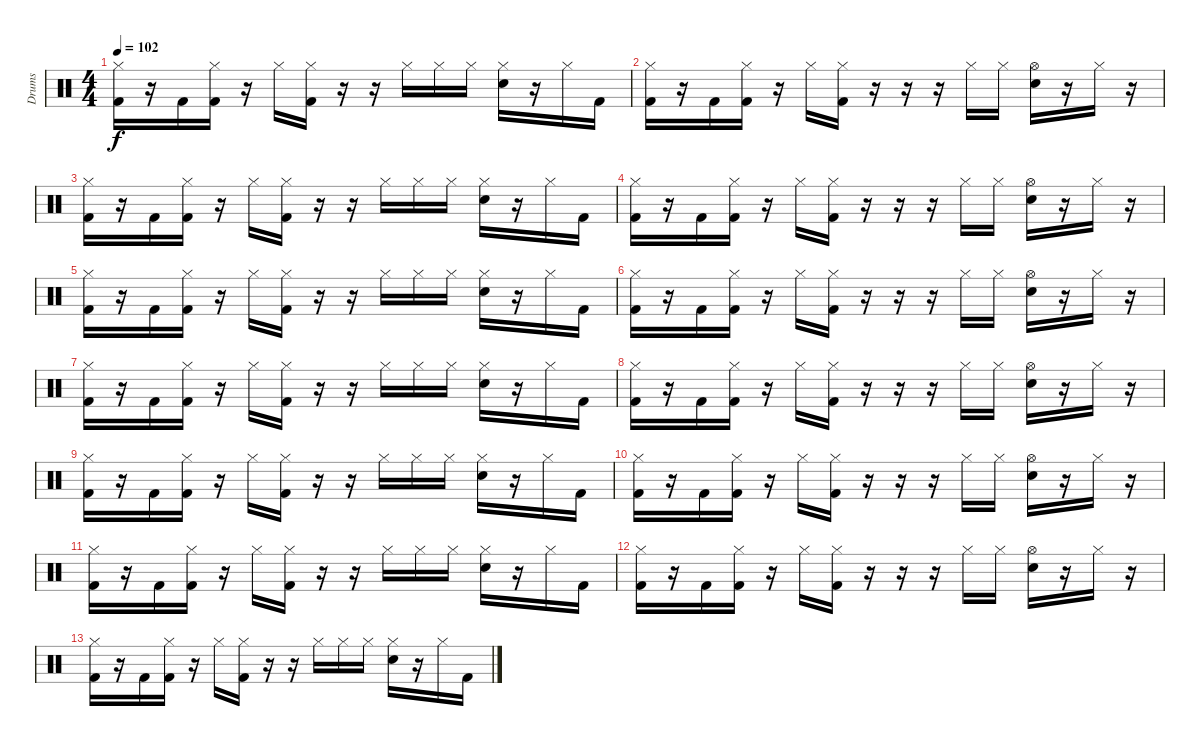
\track ("Drums" "Drums") {instrument percussion}
\staff {score}
\articulation defaults
\ts (4 4)
\tempo 102
\clef neutral
\ks c
("Hi-Hat (closed)" "Kick (hit) 2").16{dy f} r.16 "Kick (hit) 2".16 ("Hi-Hat (closed)" "Kick (hit) 2").16 r.16 "Hi-Hat (closed)".16 ("Hi-Hat (closed)" "Kick (hit) 2").16 r.16 r.16 "Hi-Hat (closed)".16 "Hi-Hat (closed)".16 "Hi-Hat (closed)".16 ("Hi-Hat (closed)" "Electric Snare (hit)").16 r.16 "Hi-Hat (closed)".16 "Kick (hit) 2".16 |
("Hi-Hat (closed)" "Kick (hit) 2").16 r.16 "Kick (hit) 2".16 ("Hi-Hat (closed)" "Kick (hit) 2").16 r.16 "Hi-Hat (closed)".16 ("Hi-Hat (closed)" "Kick (hit) 2").16 r.16 r.16 r.16 "Hi-Hat (closed)".16 "Hi-Hat (closed)".16 ("Hi-Hat (open)" "Electric Snare (hit)").16 r.16 "Hi-Hat (closed)".16 r.16 |
("Hi-Hat (closed)" "Kick (hit) 2").16 r.16 "Kick (hit) 2".16 ("Hi-Hat (closed)" "Kick (hit) 2").16 r.16 "Hi-Hat (closed)".16 ("Hi-Hat (closed)" "Kick (hit) 2").16 r.16 r.16 "Hi-Hat (closed)".16 "Hi-Hat (closed)".16 "Hi-Hat (closed)".16 ("Hi-Hat (closed)" "Electric Snare (hit)").16 r.16 "Hi-Hat (closed)".16 "Kick (hit) 2".16 |
("Hi-Hat (closed)" "Kick (hit) 2").16 r.16 "Kick (hit) 2".16 ("Hi-Hat (closed)" "Kick (hit) 2").16 r.16 "Hi-Hat (closed)".16 ("Hi-Hat (closed)" "Kick (hit) 2").16 r.16 r.16 r.16 "Hi-Hat (closed)".16 "Hi-Hat (closed)".16 ("Hi-Hat (open)" "Electric Snare (hit)").16 r.16 "Hi-Hat (closed)".16 r.16 |
("Hi-Hat (closed)" "Kick (hit) 2").16 r.16 "Kick (hit) 2".16 ("Hi-Hat (closed)" "Kick (hit) 2").16 r.16 "Hi-Hat (closed)".16 ("Hi-Hat (closed)" "Kick (hit) 2").16 r.16 r.16 "Hi-Hat (closed)".16 "Hi-Hat (closed)".16 "Hi-Hat (closed)".16 ("Hi-Hat (closed)" "Electric Snare (hit)").16 r.16 "Hi-Hat (closed)".16 "Kick (hit) 2".16 |
("Hi-Hat (closed)" "Kick (hit) 2").16 r.16 "Kick (hit) 2".16 ("Hi-Hat (closed)" "Kick (hit) 2").16 r.16 "Hi-Hat (closed)".16 ("Hi-Hat (closed)" "Kick (hit) 2").16 r.16 r.16 r.16 "Hi-Hat (closed)".16 "Hi-Hat (closed)".16 ("Hi-Hat (open)" "Electric Snare (hit)").16 r.16 "Hi-Hat (closed)".16 r.16 |
("Hi-Hat (closed)" "Kick (hit) 2").16 r.16 "Kick (hit) 2".16 ("Hi-Hat (closed)" "Kick (hit) 2").16 r.16 "Hi-Hat (closed)".16 ("Hi-Hat (closed)" "Kick (hit) 2").16 r.16 r.16 "Hi-Hat (closed)".16 "Hi-Hat (closed)".16 "Hi-Hat (closed)".16 ("Hi-Hat (closed)" "Electric Snare (hit)").16 r.16 "Hi-Hat (closed)".16 "Kick (hit) 2".16 |
("Hi-Hat (closed)" "Kick (hit) 2").16 r.16 "Kick (hit) 2".16 ("Hi-Hat (closed)" "Kick (hit) 2").16 r.16 "Hi-Hat (closed)".16 ("Hi-Hat (closed)" "Kick (hit) 2").16 r.16 r.16 r.16 "Hi-Hat (closed)".16 "Hi-Hat (closed)".16 ("Hi-Hat (open)" "Electric Snare (hit)").16 r.16 "Hi-Hat (closed)".16 r.16 |
("Hi-Hat (closed)" "Kick (hit) 2").16 r.16 "Kick (hit) 2".16 ("Hi-Hat (closed)" "Kick (hit) 2").16 r.16 "Hi-Hat (closed)".16 ("Hi-Hat (closed)" "Kick (hit) 2").16 r.16 r.16 "Hi-Hat (closed)".16 "Hi-Hat (closed)".16 "Hi-Hat (closed)".16 ("Hi-Hat (closed)" "Electric Snare (hit)").16 r.16 "Hi-Hat (closed)".16 "Kick (hit) 2".16 |
("Hi-Hat (closed)" "Kick (hit) 2").16 r.16 "Kick (hit) 2".16 ("Hi-Hat (closed)" "Kick (hit) 2").16 r.16 "Hi-Hat (closed)".16 ("Hi-Hat (closed)" "Kick (hit) 2").16 r.16 r.16 r.16 "Hi-Hat (closed)".16 "Hi-Hat (closed)".16 ("Hi-Hat (open)" "Electric Snare (hit)").16 r.16 "Hi-Hat (closed)".16 r.16 |
("Hi-Hat (closed)" "Kick (hit) 2").16 r.16 "Kick (hit) 2".16 ("Hi-Hat (closed)" "Kick (hit) 2").16 r.16 "Hi-Hat (closed)".16 ("Hi-Hat (closed)" "Kick (hit) 2").16 r.16 r.16 "Hi-Hat (closed)".16 "Hi-Hat (closed)".16 "Hi-Hat (closed)".16 ("Hi-Hat (closed)" "Electric Snare (hit)").16 r.16 "Hi-Hat (closed)".16 "Kick (hit) 2".16 |
("Hi-Hat (closed)" "Kick (hit) 2").16 r.16 "Kick (hit) 2".16 ("Hi-Hat (closed)" "Kick (hit) 2").16 r.16 "Hi-Hat (closed)".16 ("Hi-Hat (closed)" "Kick (hit) 2").16 r.16 r.16 r.16 "Hi-Hat (closed)".16 "Hi-Hat (closed)".16 ("Hi-Hat (open)" "Electric Snare (hit)").16 r.16 "Hi-Hat (closed)".16 r.16 |
("Hi-Hat (closed)" "Kick (hit) 2").16 r.16 "Kick (hit) 2".16 ("Hi-Hat (closed)" "Kick (hit) 2").16 r.16 "Hi-Hat (closed)".16 ("Hi-Hat (closed)" "Kick (hit) 2").16 r.16 r.16 "Hi-Hat (closed)".16 "Hi-Hat (closed)".16 "Hi-Hat (closed)".16 ("Hi-Hat (closed)" "Electric Snare (hit)").16 r.16 "Hi-Hat (closed)".16 "Kick (hit) 2".16
